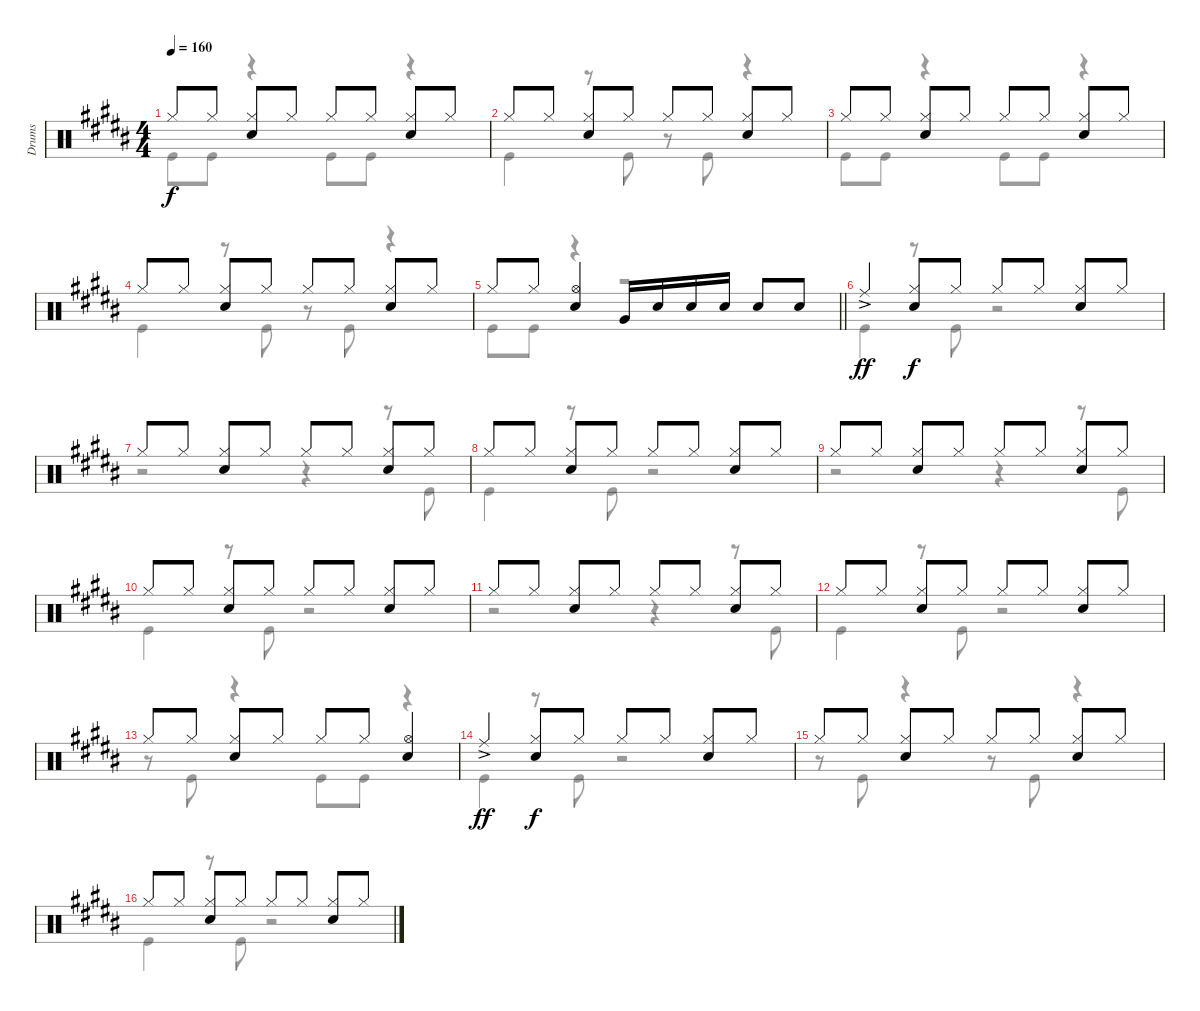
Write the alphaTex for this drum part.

\track ("Drums" "Drums") {instrument percussion}
\staff {score}
\articulation defaults
\voice
\ts (4 4)
\tempo 160
\clef neutral
\ks b "Hi-Hat (closed)".8{dy f} "Hi-Hat (closed)".8
("Hi-Hat (closed)" "Snare (hit) 2").8 "Hi-Hat (closed)".8 "Hi-Hat (closed)".8 "Hi-Hat (closed)".8 ("Hi-Hat (closed)" "Snare (hit) 2").8 "Hi-Hat (closed)".8 |
"Hi-Hat (closed)".8 "Hi-Hat (closed)".8 ("Hi-Hat (closed)" "Snare (hit) 2").8 "Hi-Hat (closed)".8 "Hi-Hat (closed)".8 "Hi-Hat (closed)".8 ("Hi-Hat (closed)" "Snare (hit) 2").8 "Hi-Hat (closed)".8 |
"Hi-Hat (closed)".8 "Hi-Hat (closed)".8 ("Hi-Hat (closed)" "Snare (hit) 2").8 "Hi-Hat (closed)".8 "Hi-Hat (closed)".8 "Hi-Hat (closed)".8 ("Hi-Hat (closed)" "Snare (hit) 2").8 "Hi-Hat (closed)".8 |
"Hi-Hat (closed)".8 "Hi-Hat (closed)".8 ("Hi-Hat (closed)" "Snare (hit) 2").8 "Hi-Hat (closed)".8 "Hi-Hat (closed)".8 "Hi-Hat (closed)".8 ("Hi-Hat (closed)" "Snare (hit) 2").8 "Hi-Hat (closed)".8 |
\barLineRight lightlight "Hi-Hat (closed)".8 "Hi-Hat (closed)".8
("Hi-Hat (open)" "Snare (hit) 2").4 "Very Low Tom (hit)".16 "Snare (hit) 2".16 "Snare (hit) 2".16 "Snare (hit) 2".16 "Snare (hit) 2".8 "Snare (hit) 2".8 |
"Ride (middle)"{ac}.4{dy ff} ("Hi-Hat (closed)" "Snare (hit) 2").8{dy f} "Hi-Hat (closed)".8 "Hi-Hat (closed)".8 "Hi-Hat (closed)".8 ("Hi-Hat (closed)" "Snare (hit) 2").8 "Hi-Hat (closed)".8 |
"Hi-Hat (closed)".8 "Hi-Hat (closed)".8 ("Hi-Hat (closed)" "Snare (hit) 2").8 "Hi-Hat (closed)".8 "Hi-Hat (closed)".8 "Hi-Hat (closed)".8 ("Hi-Hat (closed)" "Snare (hit) 2").8 "Hi-Hat (closed)".8 |
"Hi-Hat (closed)".8 "Hi-Hat (closed)".8 ("Hi-Hat (closed)" "Snare (hit) 2").8 "Hi-Hat (closed)".8 "Hi-Hat (closed)".8 "Hi-Hat (closed)".8 ("Hi-Hat (closed)" "Snare (hit) 2").8 "Hi-Hat (closed)".8 |
"Hi-Hat (closed)".8 "Hi-Hat (closed)".8 ("Hi-Hat (closed)" "Snare (hit) 2").8 "Hi-Hat (closed)".8 "Hi-Hat (closed)".8 "Hi-Hat (closed)".8 ("Hi-Hat (closed)" "Snare (hit) 2").8 "Hi-Hat (closed)".8 |
"Hi-Hat (closed)".8 "Hi-Hat (closed)".8 ("Hi-Hat (closed)" "Snare (hit) 2").8 "Hi-Hat (closed)".8 "Hi-Hat (closed)".8 "Hi-Hat (closed)".8 ("Hi-Hat (closed)" "Snare (hit) 2").8 "Hi-Hat (closed)".8 |
"Hi-Hat (closed)".8 "Hi-Hat (closed)".8 ("Hi-Hat (closed)" "Snare (hit) 2").8 "Hi-Hat (closed)".8 "Hi-Hat (closed)".8 "Hi-Hat (closed)".8 ("Hi-Hat (closed)" "Snare (hit) 2").8 "Hi-Hat (closed)".8 |
"Hi-Hat (closed)".8 "Hi-Hat (closed)".8 ("Hi-Hat (closed)" "Snare (hit) 2").8 "Hi-Hat (closed)".8 "Hi-Hat (closed)".8 "Hi-Hat (closed)".8 ("Hi-Hat (closed)" "Snare (hit) 2").8 "Hi-Hat (closed)".8 |
"Hi-Hat (closed)".8 "Hi-Hat (closed)".8 ("Hi-Hat (closed)" "Snare (hit) 2").8 "Hi-Hat (closed)".8 "Hi-Hat (closed)".8 "Hi-Hat (closed)".8 ("Hi-Hat (open)" "Snare (hit) 2").4 |
"Ride (middle)"{ac}.4{dy ff} ("Hi-Hat (closed)" "Snare (hit) 2").8{dy f} "Hi-Hat (closed)".8 "Hi-Hat (closed)".8 "Hi-Hat (closed)".8 ("Hi-Hat (closed)" "Snare (hit) 2").8 "Hi-Hat (closed)".8 |
"Hi-Hat (closed)".8 "Hi-Hat (closed)".8 ("Hi-Hat (closed)" "Snare (hit) 2").8 "Hi-Hat (closed)".8 "Hi-Hat (closed)".8 "Hi-Hat (closed)".8 ("Hi-Hat (closed)" "Snare (hit) 2").8 "Hi-Hat (closed)".8 |
"Hi-Hat (closed)".8 "Hi-Hat (closed)".8 ("Hi-Hat (closed)" "Snare (hit) 2").8 "Hi-Hat (closed)".8 "Hi-Hat (closed)".8 "Hi-Hat (closed)".8 ("Hi-Hat (closed)" "Snare (hit) 2").8 "Hi-Hat (closed)".8
\voice
\clef neutral
\ottava regular
\simile none
\ks b "Kick (hit)".8{dy f} "Kick (hit)".8
r.4 "Kick (hit)".8 "Kick (hit)".8 r.4 |
"Kick (hit)".4 r.8 "Kick (hit)".8 r.8 "Kick (hit)".8 r.4 |
"Kick (hit)".8 "Kick (hit)".8 r.4 "Kick (hit)".8 "Kick (hit)".8 r.4 |
"Kick (hit)".4 r.8 "Kick (hit)".8 r.8 "Kick (hit)".8 r.4 |
\barLineRight lightlight "Kick (hit)".8 "Kick (hit)".8
r.4 r.2 |
"Kick (hit)".4 r.8 "Kick (hit)".8 r.2 |
r.2 r.4 r.8 "Kick (hit)".8 |
"Kick (hit)".4 r.8 "Kick (hit)".8 r.2 |
r.2 r.4 r.8 "Kick (hit)".8 |
"Kick (hit)".4 r.8 "Kick (hit)".8 r.2 |
r.2 r.4 r.8 "Kick (hit)".8 |
"Kick (hit)".4 r.8 "Kick (hit)".8 r.2 |
r.8 "Kick (hit)".8 r.4 "Kick (hit)".8 "Kick (hit)".8 r.4 |
"Kick (hit)".4 r.8 "Kick (hit)".8 r.2 |
r.8 "Kick (hit)".8 r.4 r.8 "Kick (hit)".8 r.4 |
"Kick (hit)".4 r.8 "Kick (hit)".8 r.2
